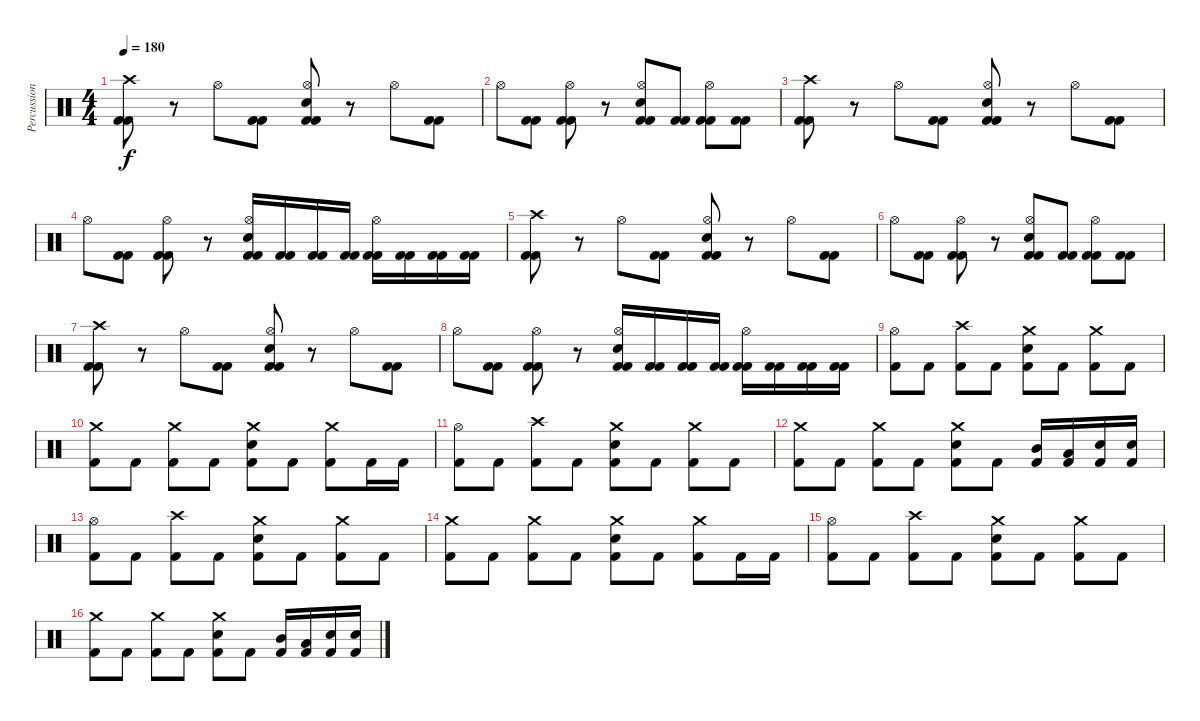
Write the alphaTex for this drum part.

\track ("Percussion" "Percussion") {instrument percussion}
\staff {score}
\articulation defaults
\ts (4 4)
\tempo 180
\clef neutral
\ks c
("Crash high (hit)" "Kick (hit) 2" "Kick (hit) 2").8{dy f} r.8 "Hi-Hat (open)".8 ("Kick (hit) 2" "Kick (hit) 2").8 ("Hi-Hat (open)" "Electric Snare (hit)" "Kick (hit) 2" "Kick (hit) 2").8 r.8 "Hi-Hat (open)".8 ("Kick (hit) 2" "Kick (hit) 2").8 |
"Hi-Hat (open)".8 ("Kick (hit) 2" "Kick (hit) 2").8 ("Hi-Hat (open)" "Kick (hit) 2" "Kick (hit) 2").8 r.8 ("Hi-Hat (open)" "Electric Snare (hit)" "Kick (hit) 2" "Kick (hit) 2").8 ("Kick (hit) 2" "Kick (hit) 2").8 ("Hi-Hat (open)" "Kick (hit) 2" "Kick (hit) 2").8 ("Kick (hit) 2" "Kick (hit) 2").8 |
("Crash high (hit)" "Kick (hit) 2" "Kick (hit) 2").8 r.8 "Hi-Hat (open)".8 ("Kick (hit) 2" "Kick (hit) 2").8 ("Hi-Hat (open)" "Electric Snare (hit)" "Kick (hit) 2" "Kick (hit) 2").8 r.8 "Hi-Hat (open)".8 ("Kick (hit) 2" "Kick (hit) 2").8 |
"Hi-Hat (open)".8 ("Kick (hit) 2" "Kick (hit) 2").8 ("Hi-Hat (open)" "Kick (hit) 2" "Kick (hit) 2").8 r.8 ("Hi-Hat (open)" "Electric Snare (hit)" "Kick (hit) 2" "Kick (hit) 2").16 ("Kick (hit) 2" "Kick (hit) 2").16 ("Kick (hit) 2" "Kick (hit) 2").16 ("Kick (hit) 2" "Kick (hit) 2").16 ("Hi-Hat (open)" "Kick (hit) 2" "Kick (hit) 2").16 ("Kick (hit) 2" "Kick (hit) 2").16 ("Kick (hit) 2" "Kick (hit) 2").16 ("Kick (hit) 2" "Kick (hit) 2").16 |
("Crash high (hit)" "Kick (hit) 2" "Kick (hit) 2").8 r.8 "Hi-Hat (open)".8 ("Kick (hit) 2" "Kick (hit) 2").8 ("Hi-Hat (open)" "Electric Snare (hit)" "Kick (hit) 2" "Kick (hit) 2").8 r.8 "Hi-Hat (open)".8 ("Kick (hit) 2" "Kick (hit) 2").8 |
"Hi-Hat (open)".8 ("Kick (hit) 2" "Kick (hit) 2").8 ("Hi-Hat (open)" "Kick (hit) 2" "Kick (hit) 2").8 r.8 ("Hi-Hat (open)" "Electric Snare (hit)" "Kick (hit) 2" "Kick (hit) 2").8 ("Kick (hit) 2" "Kick (hit) 2").8 ("Hi-Hat (open)" "Kick (hit) 2" "Kick (hit) 2").8 ("Kick (hit) 2" "Kick (hit) 2").8 |
("Crash high (hit)" "Kick (hit) 2" "Kick (hit) 2").8 r.8 "Hi-Hat (open)".8 ("Kick (hit) 2" "Kick (hit) 2").8 ("Hi-Hat (open)" "Electric Snare (hit)" "Kick (hit) 2" "Kick (hit) 2").8 r.8 "Hi-Hat (open)".8 ("Kick (hit) 2" "Kick (hit) 2").8 |
"Hi-Hat (open)".8 ("Kick (hit) 2" "Kick (hit) 2").8 ("Hi-Hat (open)" "Kick (hit) 2" "Kick (hit) 2").8 r.8 ("Hi-Hat (open)" "Electric Snare (hit)" "Kick (hit) 2" "Kick (hit) 2").16 ("Kick (hit) 2" "Kick (hit) 2").16 ("Kick (hit) 2" "Kick (hit) 2").16 ("Kick (hit) 2" "Kick (hit) 2").16 ("Hi-Hat (open)" "Kick (hit) 2" "Kick (hit) 2").16 ("Kick (hit) 2" "Kick (hit) 2").16 ("Kick (hit) 2" "Kick (hit) 2").16 ("Kick (hit) 2" "Kick (hit) 2").16 |
("Hi-Hat (open)" "Kick (hit) 2").8 "Kick (hit) 2".8 ("Crash high (hit)" "Kick (hit) 2").8 "Kick (hit) 2".8 ("Crash medium (hit)" "Electric Snare (hit)" "Kick (hit) 2").8 "Kick (hit) 2".8 ("Crash medium (hit)" "Kick (hit) 2").8 "Kick (hit) 2".8 |
("Crash medium (hit)" "Kick (hit) 2").8 "Kick (hit) 2".8 ("Crash medium (hit)" "Kick (hit) 2").8 "Kick (hit) 2".8 ("Crash medium (hit)" "Electric Snare (hit)" "Kick (hit) 2").8 "Kick (hit) 2".8 ("Crash medium (hit)" "Kick (hit) 2").8 "Kick (hit) 2".16 "Kick (hit) 2".16 |
("Hi-Hat (open)" "Kick (hit) 2").8 "Kick (hit) 2".8 ("Crash high (hit)" "Kick (hit) 2").8 "Kick (hit) 2".8 ("Crash medium (hit)" "Electric Snare (hit)" "Kick (hit) 2").8 "Kick (hit) 2".8 ("Crash medium (hit)" "Kick (hit) 2").8 "Kick (hit) 2".8 |
("Crash medium (hit)" "Kick (hit) 2").8 "Kick (hit) 2".8 ("Crash medium (hit)" "Kick (hit) 2").8 "Kick (hit) 2".8 ("Crash medium (hit)" "Electric Snare (hit)" "Kick (hit) 2").8 "Kick (hit) 2".8 ("Mid Tom (hit)" "Kick (hit) 2").16 ("Low Tom (hit)" "Kick (hit) 2").16 ("Electric Snare (hit)" "Kick (hit) 2").16 ("Electric Snare (hit)" "Kick (hit) 2").16 |
("Hi-Hat (open)" "Kick (hit) 2").8 "Kick (hit) 2".8 ("Crash high (hit)" "Kick (hit) 2").8 "Kick (hit) 2".8 ("Crash medium (hit)" "Electric Snare (hit)" "Kick (hit) 2").8 "Kick (hit) 2".8 ("Crash medium (hit)" "Kick (hit) 2").8 "Kick (hit) 2".8 |
("Crash medium (hit)" "Kick (hit) 2").8 "Kick (hit) 2".8 ("Crash medium (hit)" "Kick (hit) 2").8 "Kick (hit) 2".8 ("Crash medium (hit)" "Electric Snare (hit)" "Kick (hit) 2").8 "Kick (hit) 2".8 ("Crash medium (hit)" "Kick (hit) 2").8 "Kick (hit) 2".16 "Kick (hit) 2".16 |
("Hi-Hat (open)" "Kick (hit) 2").8 "Kick (hit) 2".8 ("Crash high (hit)" "Kick (hit) 2").8 "Kick (hit) 2".8 ("Crash medium (hit)" "Electric Snare (hit)" "Kick (hit) 2").8 "Kick (hit) 2".8 ("Crash medium (hit)" "Kick (hit) 2").8 "Kick (hit) 2".8 |
("Crash medium (hit)" "Kick (hit) 2").8 "Kick (hit) 2".8 ("Crash medium (hit)" "Kick (hit) 2").8 "Kick (hit) 2".8 ("Crash medium (hit)" "Electric Snare (hit)" "Kick (hit) 2").8 "Kick (hit) 2".8 ("Mid Tom (hit)" "Kick (hit) 2").16 ("Low Tom (hit)" "Kick (hit) 2").16 ("Electric Snare (hit)" "Kick (hit) 2").16 ("Electric Snare (hit)" "Kick (hit) 2").16
